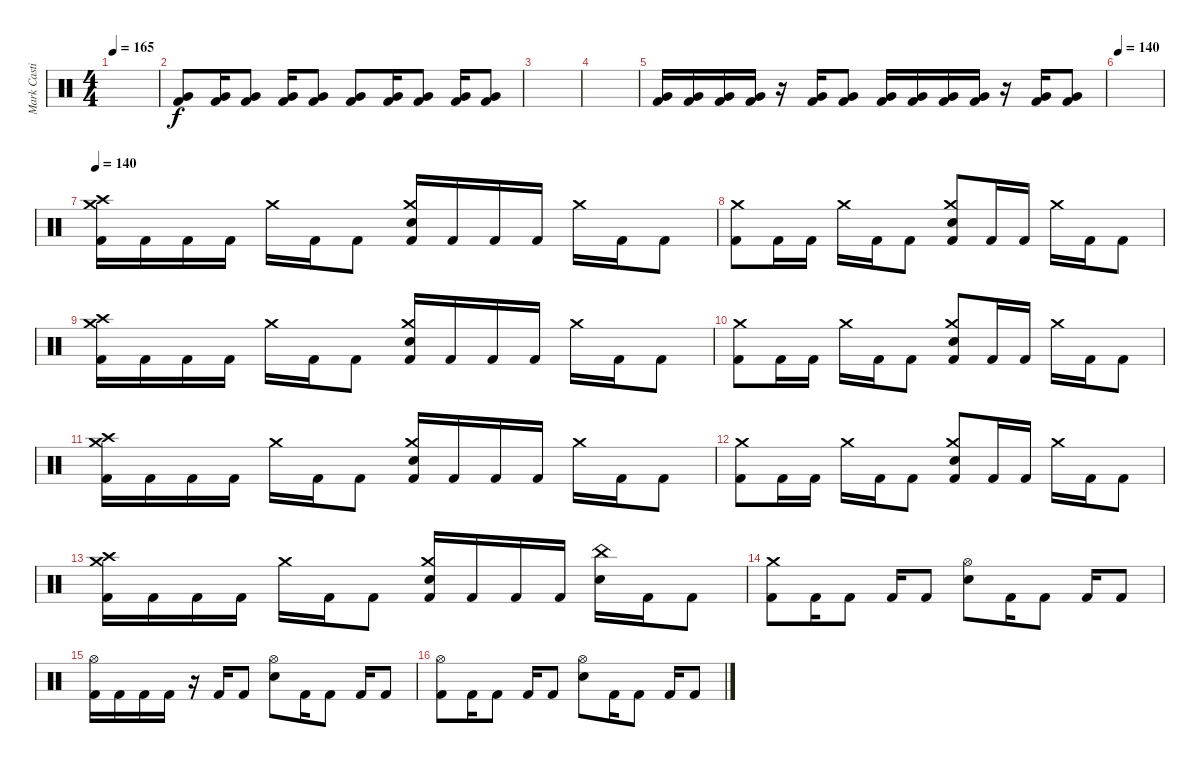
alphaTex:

\track ("Mark Castillo" "Mark Casti") {instrument percussion}
\staff {score}
\articulation defaults
\ts (4 4)
\tempo 165
\clef neutral
\ks c
|
("Kick (hit) 2" "Very Low Tom (hit)").8 ("Kick (hit) 2" "Very Low Tom (hit)").16 ("Kick (hit) 2" "Very Low Tom (hit)").8 ("Kick (hit) 2" "Very Low Tom (hit)").16 ("Kick (hit) 2" "Very Low Tom (hit)").8 ("Kick (hit) 2" "Very Low Tom (hit)").8 ("Kick (hit) 2" "Very Low Tom (hit)").16 ("Kick (hit) 2" "Very Low Tom (hit)").8 ("Kick (hit) 2" "Very Low Tom (hit)").16 ("Kick (hit) 2" "Very Low Tom (hit)").8 |
|
|
("Kick (hit) 2" "Very Low Tom (hit)").16 ("Kick (hit) 2" "Very Low Tom (hit)").16 ("Kick (hit) 2" "Very Low Tom (hit)").16 ("Kick (hit) 2" "Very Low Tom (hit)").16 r.16 ("Kick (hit) 2" "Very Low Tom (hit)").16 ("Kick (hit) 2" "Very Low Tom (hit)").8 ("Kick (hit) 2" "Very Low Tom (hit)").16 ("Kick (hit) 2" "Very Low Tom (hit)").16 ("Kick (hit) 2" "Very Low Tom (hit)").16 ("Kick (hit) 2" "Very Low Tom (hit)").16 r.16 ("Kick (hit) 2" "Very Low Tom (hit)").16 ("Kick (hit) 2" "Very Low Tom (hit)").8 |
\tempo 140
|
\tempo 140
("Kick (hit) 2" "Crash medium (hit)" "Crash high (hit)").16 "Kick (hit) 2".16 "Kick (hit) 2".16 "Kick (hit) 2".16 "Crash medium (hit)".16 "Kick (hit) 2".16 "Kick (hit) 2".8 ("Kick (hit) 2" "Electric Snare (hit)" "Crash medium (hit)").16 "Kick (hit) 2".16 "Kick (hit) 2".16 "Kick (hit) 2".16 "Crash medium (hit)".16 "Kick (hit) 2".16 "Kick (hit) 2".8 |
("Kick (hit) 2" "Crash medium (hit)").8 "Kick (hit) 2".16 "Kick (hit) 2".16 "Crash medium (hit)".16 "Kick (hit) 2".16 "Kick (hit) 2".8 ("Kick (hit) 2" "Electric Snare (hit)" "Crash medium (hit)").8 "Kick (hit) 2".16 "Kick (hit) 2".16 "Crash medium (hit)".16 "Kick (hit) 2".16 "Kick (hit) 2".8 |
("Kick (hit) 2" "Crash medium (hit)" "Crash high (hit)").16 "Kick (hit) 2".16 "Kick (hit) 2".16 "Kick (hit) 2".16 "Crash medium (hit)".16 "Kick (hit) 2".16 "Kick (hit) 2".8 ("Kick (hit) 2" "Electric Snare (hit)" "Crash medium (hit)").16 "Kick (hit) 2".16 "Kick (hit) 2".16 "Kick (hit) 2".16 "Crash medium (hit)".16 "Kick (hit) 2".16 "Kick (hit) 2".8 |
("Kick (hit) 2" "Crash medium (hit)").8 "Kick (hit) 2".16 "Kick (hit) 2".16 "Crash medium (hit)".16 "Kick (hit) 2".16 "Kick (hit) 2".8 ("Kick (hit) 2" "Electric Snare (hit)" "Crash medium (hit)").8 "Kick (hit) 2".16 "Kick (hit) 2".16 "Crash medium (hit)".16 "Kick (hit) 2".16 "Kick (hit) 2".8 |
("Kick (hit) 2" "Crash medium (hit)" "Crash high (hit)").16 "Kick (hit) 2".16 "Kick (hit) 2".16 "Kick (hit) 2".16 "Crash medium (hit)".16 "Kick (hit) 2".16 "Kick (hit) 2".8 ("Kick (hit) 2" "Electric Snare (hit)" "Crash medium (hit)").16 "Kick (hit) 2".16 "Kick (hit) 2".16 "Kick (hit) 2".16 "Crash medium (hit)".16 "Kick (hit) 2".16 "Kick (hit) 2".8 |
("Kick (hit) 2" "Crash medium (hit)").8 "Kick (hit) 2".16 "Kick (hit) 2".16 "Crash medium (hit)".16 "Kick (hit) 2".16 "Kick (hit) 2".8 ("Kick (hit) 2" "Electric Snare (hit)" "Crash medium (hit)").8 "Kick (hit) 2".16 "Kick (hit) 2".16 "Crash medium (hit)".16 "Kick (hit) 2".16 "Kick (hit) 2".8 |
("Kick (hit) 2" "Crash medium (hit)" "Crash high (hit)").16 "Kick (hit) 2".16 "Kick (hit) 2".16 "Kick (hit) 2".16 "Crash medium (hit)".16 "Kick (hit) 2".16 "Kick (hit) 2".8 ("Kick (hit) 2" "Electric Snare (hit)" "Crash medium (hit)").16 "Kick (hit) 2".16 "Kick (hit) 2".16 "Kick (hit) 2".16 ("Electric Snare (hit)" "China (hit)").16 "Kick (hit) 2".16 "Kick (hit) 2".8 |
("Kick (hit) 2" "Crash medium (hit)").8 "Kick (hit) 2".16 "Kick (hit) 2".8 "Kick (hit) 2".16 "Kick (hit) 2".8 ("Electric Snare (hit)" "Hi-Hat (open)").8 "Kick (hit) 2".16 "Kick (hit) 2".8 "Kick (hit) 2".16 "Kick (hit) 2".8 |
("Kick (hit) 2" "Hi-Hat (open)").16 "Kick (hit) 2".16 "Kick (hit) 2".16 "Kick (hit) 2".16 r.16 "Kick (hit) 2".16 "Kick (hit) 2".8 ("Electric Snare (hit)" "Hi-Hat (open)").8 "Kick (hit) 2".16 "Kick (hit) 2".8 "Kick (hit) 2".16 "Kick (hit) 2".8 |
("Kick (hit) 2" "Hi-Hat (open)").8 "Kick (hit) 2".16 "Kick (hit) 2".8 "Kick (hit) 2".16 "Kick (hit) 2".8 ("Electric Snare (hit)" "Hi-Hat (open)").8 "Kick (hit) 2".16 "Kick (hit) 2".8 "Kick (hit) 2".16 "Kick (hit) 2".8
